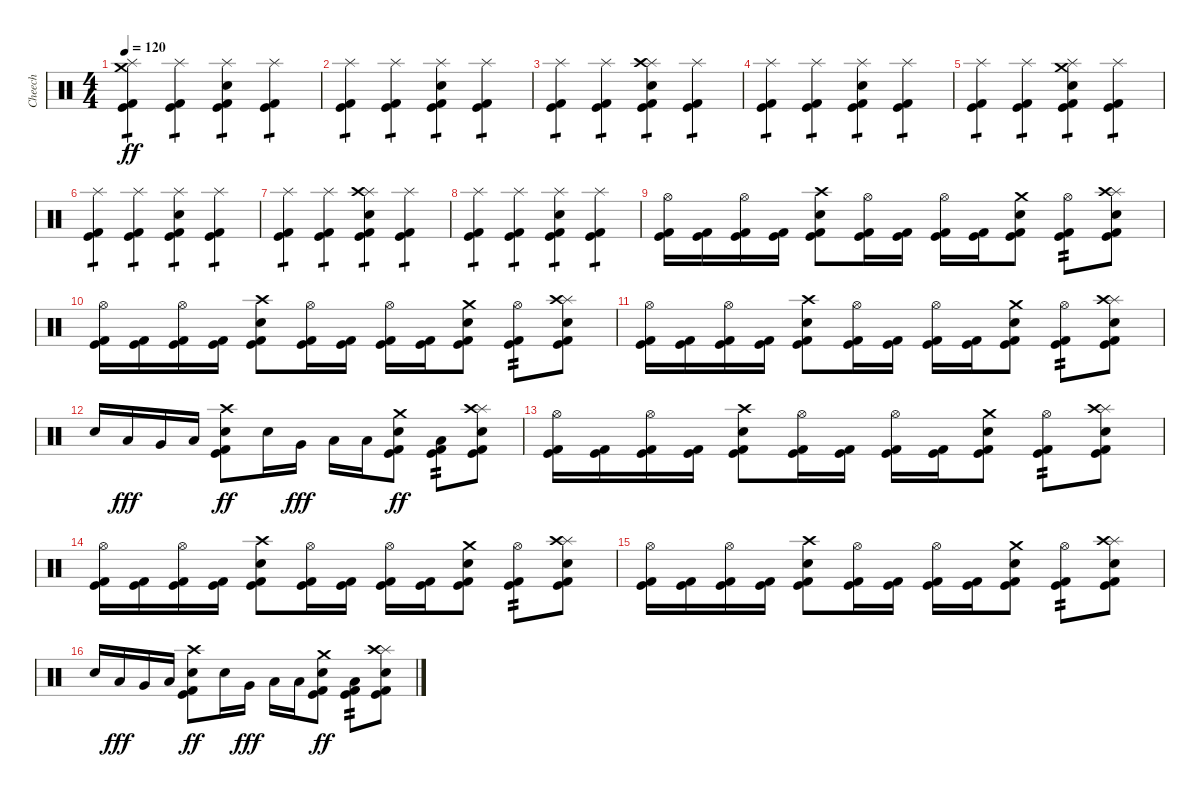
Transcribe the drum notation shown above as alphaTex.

\track ("Cheech" "Cheech") {instrument percussion}
\staff {score}
\articulation defaults
\ts (4 4)
\tempo 120
\clef neutral
\ks c
("Splash (hit)" "Crash medium (hit)" "Kick (hit) 2" "Kick (hit)").4{tp 1 dy ff} ("Splash (hit)" "Kick (hit) 2" "Kick (hit)").4{tp 1} ("Splash (hit)" "Electric Snare (hit)" "Kick (hit) 2" "Kick (hit)").4{tp 1} ("Splash (hit)" "Kick (hit) 2" "Kick (hit)").4{tp 1} |
("Splash (hit)" "Kick (hit) 2" "Kick (hit)").4{tp 1} ("Splash (hit)" "Kick (hit) 2" "Kick (hit)").4{tp 1} ("Splash (hit)" "Electric Snare (hit)" "Kick (hit) 2" "Kick (hit)").4{tp 1} ("Splash (hit)" "Kick (hit) 2" "Kick (hit)").4{tp 1} |
("Splash (hit)" "Kick (hit) 2" "Kick (hit)").4{tp 1} ("Splash (hit)" "Kick (hit) 2" "Kick (hit)").4{tp 1} ("Splash (hit)" "Crash high (hit)" "Electric Snare (hit)" "Kick (hit) 2" "Kick (hit)").4{tp 1} ("Splash (hit)" "Kick (hit) 2" "Kick (hit)").4{tp 1} |
("Splash (hit)" "Kick (hit) 2" "Kick (hit)").4{tp 1} ("Splash (hit)" "Kick (hit) 2" "Kick (hit)").4{tp 1} ("Splash (hit)" "Electric Snare (hit)" "Kick (hit) 2" "Kick (hit)").4{tp 1} ("Splash (hit)" "Kick (hit) 2" "Kick (hit)").4{tp 1} |
("Splash (hit)" "Kick (hit) 2" "Kick (hit)").4{tp 1} ("Splash (hit)" "Kick (hit) 2" "Kick (hit)").4{tp 1} ("Splash (hit)" "Crash medium (hit)" "Electric Snare (hit)" "Kick (hit) 2" "Kick (hit)").4{tp 1} ("Splash (hit)" "Kick (hit) 2" "Kick (hit)").4{tp 1} |
("Splash (hit)" "Kick (hit) 2" "Kick (hit)").4{tp 1} ("Splash (hit)" "Kick (hit) 2" "Kick (hit)").4{tp 1} ("Splash (hit)" "Electric Snare (hit)" "Kick (hit) 2" "Kick (hit)").4{tp 1} ("Splash (hit)" "Kick (hit) 2" "Kick (hit)").4{tp 1} |
("Splash (hit)" "Kick (hit) 2" "Kick (hit)").4{tp 1} ("Splash (hit)" "Kick (hit) 2" "Kick (hit)").4{tp 1} ("Splash (hit)" "Crash high (hit)" "Electric Snare (hit)" "Kick (hit) 2" "Kick (hit)").4{tp 1} ("Splash (hit)" "Kick (hit) 2" "Kick (hit)").4{tp 1} |
("Splash (hit)" "Kick (hit) 2" "Kick (hit)").4{tp 1} ("Splash (hit)" "Kick (hit) 2" "Kick (hit)").4{tp 1} ("Splash (hit)" "Electric Snare (hit)" "Kick (hit) 2" "Kick (hit)").4{tp 1} ("Splash (hit)" "Kick (hit) 2" "Kick (hit)").4{tp 1} |
("Hi-Hat (open)" "Kick (hit) 2" "Kick (hit)").16 ("Kick (hit) 2" "Kick (hit)").16 ("Hi-Hat (open)" "Kick (hit) 2" "Kick (hit)").16 ("Kick (hit) 2" "Kick (hit)").16 ("Crash high (hit)" "Electric Snare (hit)" "Kick (hit) 2" "Kick (hit)").8 ("Hi-Hat (open)" "Kick (hit) 2" "Kick (hit)").16 ("Kick (hit) 2" "Kick (hit)").16 ("Hi-Hat (open)" "Kick (hit) 2" "Kick (hit)").16 ("Kick (hit) 2" "Kick (hit)").16 ("Crash medium (hit)" "Electric Snare (hit)" "Kick (hit) 2" "Kick (hit)").8 ("Hi-Hat (open)" "Kick (hit) 2" "Kick (hit)").8{tp 2} ("Splash (hit)" "Crash high (hit)" "Electric Snare (hit)" "Kick (hit) 2" "Kick (hit)").8 |
("Hi-Hat (open)" "Kick (hit) 2" "Kick (hit)").16 ("Kick (hit) 2" "Kick (hit)").16 ("Hi-Hat (open)" "Kick (hit) 2" "Kick (hit)").16 ("Kick (hit) 2" "Kick (hit)").16 ("Crash high (hit)" "Electric Snare (hit)" "Kick (hit) 2" "Kick (hit)").8 ("Hi-Hat (open)" "Kick (hit) 2" "Kick (hit)").16 ("Kick (hit) 2" "Kick (hit)").16 ("Hi-Hat (open)" "Kick (hit) 2" "Kick (hit)").16 ("Kick (hit) 2" "Kick (hit)").16 ("Crash medium (hit)" "Electric Snare (hit)" "Kick (hit) 2" "Kick (hit)").8 ("Hi-Hat (open)" "Kick (hit) 2" "Kick (hit)").8{tp 2} ("Splash (hit)" "Crash high (hit)" "Electric Snare (hit)" "Kick (hit) 2" "Kick (hit)").8 |
("Hi-Hat (open)" "Kick (hit) 2" "Kick (hit)").16 ("Kick (hit) 2" "Kick (hit)").16 ("Hi-Hat (open)" "Kick (hit) 2" "Kick (hit)").16 ("Kick (hit) 2" "Kick (hit)").16 ("Crash high (hit)" "Electric Snare (hit)" "Kick (hit) 2" "Kick (hit)").8 ("Hi-Hat (open)" "Kick (hit) 2" "Kick (hit)").16 ("Kick (hit) 2" "Kick (hit)").16 ("Hi-Hat (open)" "Kick (hit) 2" "Kick (hit)").16 ("Kick (hit) 2" "Kick (hit)").16 ("Crash medium (hit)" "Electric Snare (hit)" "Kick (hit) 2" "Kick (hit)").8 ("Hi-Hat (open)" "Kick (hit) 2" "Kick (hit)").8{tp 2} ("Splash (hit)" "Crash high (hit)" "Electric Snare (hit)" "Kick (hit) 2" "Kick (hit)").8 |
"Electric Snare (hit)".16 "Low Tom (hit)".16{dy fff} "Very Low Tom (hit)".16 "Low Floor Tom (hit)".16 ("Crash high (hit)" "Electric Snare (hit)" "Kick (hit) 2" "Kick (hit)").8{dy ff} "Electric Snare (hit)".16 "Very Low Tom (hit)".16{dy fff} "Low Floor Tom (hit)".16 "Low Floor Tom (hit)".16 ("Crash medium (hit)" "Electric Snare (hit)" "Kick (hit) 2" "Kick (hit)").8{dy ff} ("Low Floor Tom (hit)" "Kick (hit) 2" "Kick (hit)").8{tp 2} ("Splash (hit)" "Crash high (hit)" "Electric Snare (hit)" "Kick (hit) 2" "Kick (hit)").8 |
("Hi-Hat (open)" "Kick (hit) 2" "Kick (hit)").16 ("Kick (hit) 2" "Kick (hit)").16 ("Hi-Hat (open)" "Kick (hit) 2" "Kick (hit)").16 ("Kick (hit) 2" "Kick (hit)").16 ("Crash high (hit)" "Electric Snare (hit)" "Kick (hit) 2" "Kick (hit)").8 ("Hi-Hat (open)" "Kick (hit) 2" "Kick (hit)").16 ("Kick (hit) 2" "Kick (hit)").16 ("Hi-Hat (open)" "Kick (hit) 2" "Kick (hit)").16 ("Kick (hit) 2" "Kick (hit)").16 ("Crash medium (hit)" "Electric Snare (hit)" "Kick (hit) 2" "Kick (hit)").8 ("Hi-Hat (open)" "Kick (hit) 2" "Kick (hit)").8{tp 2} ("Splash (hit)" "Crash high (hit)" "Electric Snare (hit)" "Kick (hit) 2" "Kick (hit)").8 |
("Hi-Hat (open)" "Kick (hit) 2" "Kick (hit)").16 ("Kick (hit) 2" "Kick (hit)").16 ("Hi-Hat (open)" "Kick (hit) 2" "Kick (hit)").16 ("Kick (hit) 2" "Kick (hit)").16 ("Crash high (hit)" "Electric Snare (hit)" "Kick (hit) 2" "Kick (hit)").8 ("Hi-Hat (open)" "Kick (hit) 2" "Kick (hit)").16 ("Kick (hit) 2" "Kick (hit)").16 ("Hi-Hat (open)" "Kick (hit) 2" "Kick (hit)").16 ("Kick (hit) 2" "Kick (hit)").16 ("Crash medium (hit)" "Electric Snare (hit)" "Kick (hit) 2" "Kick (hit)").8 ("Hi-Hat (open)" "Kick (hit) 2" "Kick (hit)").8{tp 2} ("Splash (hit)" "Crash high (hit)" "Electric Snare (hit)" "Kick (hit) 2" "Kick (hit)").8 |
("Hi-Hat (open)" "Kick (hit) 2" "Kick (hit)").16 ("Kick (hit) 2" "Kick (hit)").16 ("Hi-Hat (open)" "Kick (hit) 2" "Kick (hit)").16 ("Kick (hit) 2" "Kick (hit)").16 ("Crash high (hit)" "Electric Snare (hit)" "Kick (hit) 2" "Kick (hit)").8 ("Hi-Hat (open)" "Kick (hit) 2" "Kick (hit)").16 ("Kick (hit) 2" "Kick (hit)").16 ("Hi-Hat (open)" "Kick (hit) 2" "Kick (hit)").16 ("Kick (hit) 2" "Kick (hit)").16 ("Crash medium (hit)" "Electric Snare (hit)" "Kick (hit) 2" "Kick (hit)").8 ("Hi-Hat (open)" "Kick (hit) 2" "Kick (hit)").8{tp 2} ("Splash (hit)" "Crash high (hit)" "Electric Snare (hit)" "Kick (hit) 2" "Kick (hit)").8 |
"Electric Snare (hit)".16 "Low Tom (hit)".16{dy fff} "Very Low Tom (hit)".16 "Low Floor Tom (hit)".16 ("Crash high (hit)" "Electric Snare (hit)" "Kick (hit) 2" "Kick (hit)").8{dy ff} "Electric Snare (hit)".16 "Very Low Tom (hit)".16{dy fff} "Low Floor Tom (hit)".16 "Low Floor Tom (hit)".16 ("Crash medium (hit)" "Electric Snare (hit)" "Kick (hit) 2" "Kick (hit)").8{dy ff} ("Low Floor Tom (hit)" "Kick (hit) 2" "Kick (hit)").8{tp 2} ("Splash (hit)" "Crash high (hit)" "Electric Snare (hit)" "Kick (hit) 2" "Kick (hit)").8
